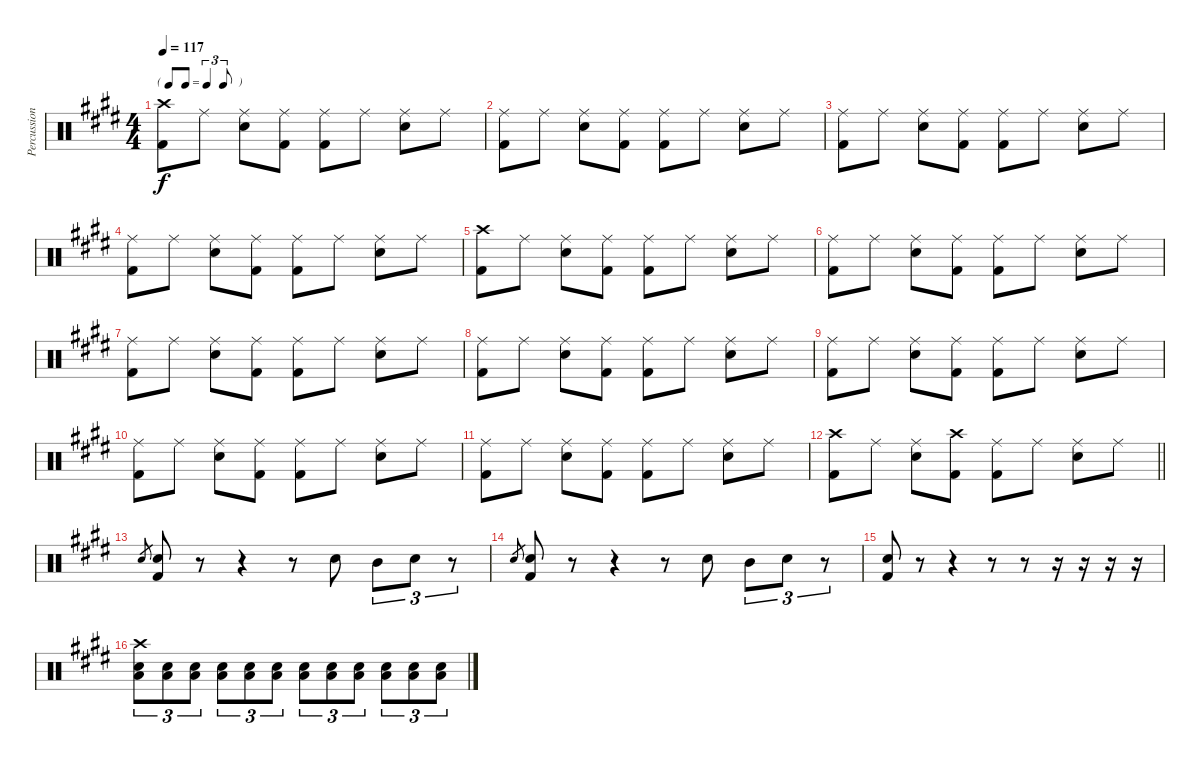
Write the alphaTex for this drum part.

\track ("Percussion" "Percussion") {instrument percussion}
\staff {score}
\articulation defaults
\ts (4 4)
\tf triplet8th
\tempo 117
\clef neutral
\ks e
("Crash high (hit)" "Kick (hit) 2").8{dy f} "Ride (middle)".8 ("Ride (middle)" "Snare (hit) 2").8 ("Ride (middle)" "Kick (hit) 2").8 ("Ride (middle)" "Kick (hit) 2").8 "Ride (middle)".8 ("Ride (middle)" "Snare (hit) 2").8 "Ride (middle)".8 |
("Ride (middle)" "Kick (hit) 2").8 "Ride (middle)".8 ("Ride (middle)" "Snare (hit) 2").8 ("Ride (middle)" "Kick (hit) 2").8 ("Ride (middle)" "Kick (hit) 2").8 "Ride (middle)".8 ("Ride (middle)" "Snare (hit) 2").8 "Ride (middle)".8 |
("Ride (middle)" "Kick (hit) 2").8 "Ride (middle)".8 ("Ride (middle)" "Snare (hit) 2").8 ("Ride (middle)" "Kick (hit) 2").8 ("Ride (middle)" "Kick (hit) 2").8 "Ride (middle)".8 ("Ride (middle)" "Snare (hit) 2").8 "Ride (middle)".8 |
("Ride (middle)" "Kick (hit) 2").8 "Ride (middle)".8 ("Ride (middle)" "Snare (hit) 2").8 ("Ride (middle)" "Kick (hit) 2").8 ("Ride (middle)" "Kick (hit) 2").8 "Ride (middle)".8 ("Ride (middle)" "Snare (hit) 2").8 "Ride (middle)".8 |
("Crash high (hit)" "Kick (hit) 2").8 "Ride (middle)".8 ("Ride (middle)" "Snare (hit) 2").8 ("Ride (middle)" "Kick (hit) 2").8 ("Ride (middle)" "Kick (hit) 2").8 "Ride (middle)".8 ("Ride (middle)" "Snare (hit) 2").8 "Ride (middle)".8 |
("Ride (middle)" "Kick (hit) 2").8 "Ride (middle)".8 ("Ride (middle)" "Snare (hit) 2").8 ("Ride (middle)" "Kick (hit) 2").8 ("Ride (middle)" "Kick (hit) 2").8 "Ride (middle)".8 ("Ride (middle)" "Snare (hit) 2").8 "Ride (middle)".8 |
("Ride (middle)" "Kick (hit) 2").8 "Ride (middle)".8 ("Ride (middle)" "Snare (hit) 2").8 ("Ride (middle)" "Kick (hit) 2").8 ("Ride (middle)" "Kick (hit) 2").8 "Ride (middle)".8 ("Ride (middle)" "Snare (hit) 2").8 "Ride (middle)".8 |
("Ride (middle)" "Kick (hit) 2").8 "Ride (middle)".8 ("Ride (middle)" "Snare (hit) 2").8 ("Ride (middle)" "Kick (hit) 2").8 ("Ride (middle)" "Kick (hit) 2").8 "Ride (middle)".8 ("Ride (middle)" "Snare (hit) 2").8 "Ride (middle)".8 |
("Ride (middle)" "Kick (hit) 2").8 "Ride (middle)".8 ("Ride (middle)" "Snare (hit) 2").8 ("Ride (middle)" "Kick (hit) 2").8 ("Ride (middle)" "Kick (hit) 2").8 "Ride (middle)".8 ("Ride (middle)" "Snare (hit) 2").8 "Ride (middle)".8 |
("Ride (middle)" "Kick (hit) 2").8 "Ride (middle)".8 ("Ride (middle)" "Snare (hit) 2").8 ("Ride (middle)" "Kick (hit) 2").8 ("Ride (middle)" "Kick (hit) 2").8 "Ride (middle)".8 ("Ride (middle)" "Snare (hit) 2").8 "Ride (middle)".8 |
("Ride (middle)" "Kick (hit) 2").8 "Ride (middle)".8 ("Ride (middle)" "Snare (hit) 2").8 ("Ride (middle)" "Kick (hit) 2").8 ("Ride (middle)" "Kick (hit) 2").8 "Ride (middle)".8 ("Ride (middle)" "Snare (hit) 2").8 "Ride (middle)".8 |
\barLineRight lightlight
("Crash high (hit)" "Kick (hit) 2").8 "Ride (middle)".8 ("Ride (middle)" "Snare (hit) 2").8 ("Crash high (hit)" "Kick (hit) 2").8 ("Ride (middle)" "Kick (hit) 2").8 "Ride (middle)".8 ("Ride (middle)" "Snare (hit) 2").8 "Ride (middle)".8 |
"Snare (hit) 2".8{gr} ("Snare (hit) 2" "Kick (hit) 2").8 r.8 r.4 r.8 "Snare (hit) 2".8 "Mid Tom (hit)".8{tu (3 2)} "Snare (hit) 2".8{tu (3 2)} r.8{tu (3 2)} |
"Snare (hit) 2".8{gr} ("Snare (hit) 2" "Kick (hit) 2").8 r.8 r.4 r.8 "Snare (hit) 2".8 "Mid Tom (hit)".8{tu (3 2)} "Snare (hit) 2".8{tu (3 2)} r.8{tu (3 2)} |
("Snare (hit) 2" "Kick (hit) 2").8 r.8 r.4 r.8 r.8 r.16 r.16 r.16 r.16 |
("Crash high (hit)" "Snare (hit) 2" "Low Floor Tom (hit)").8{tu (3 2)} ("Snare (hit) 2" "Low Floor Tom (hit)").8{tu (3 2)} ("Snare (hit) 2" "Low Floor Tom (hit)").8{tu (3 2)} ("Snare (hit) 2" "Low Floor Tom (hit)").8{tu (3 2)} ("Snare (hit) 2" "Low Floor Tom (hit)").8{tu (3 2)} ("Snare (hit) 2" "Low Floor Tom (hit)").8{tu (3 2)} ("Snare (hit) 2" "Low Floor Tom (hit)").8{tu (3 2)} ("Snare (hit) 2" "Low Floor Tom (hit)").8{tu (3 2)} ("Snare (hit) 2" "Low Floor Tom (hit)").8{tu (3 2)} ("Snare (hit) 2" "Low Floor Tom (hit)").8{tu (3 2)} ("Snare (hit) 2" "Low Floor Tom (hit)").8{tu (3 2)} ("Snare (hit) 2" "Low Floor Tom (hit)").8{tu (3 2)}
